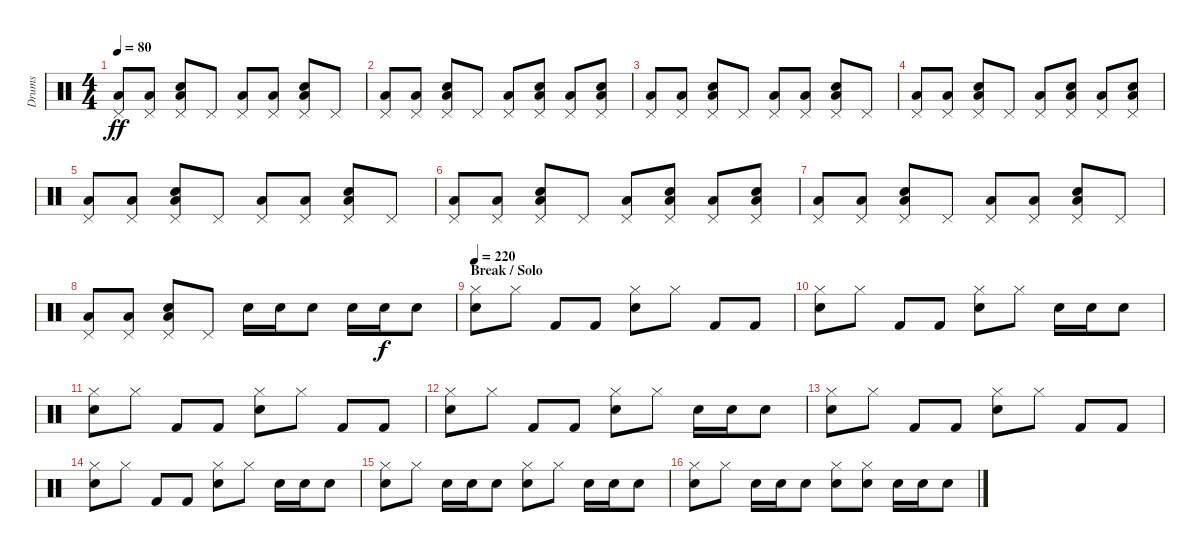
\track ("Drums" "Drums") {instrument percussion}
\staff {score}
\articulation defaults
\ts (4 4)
\tempo 80
\clef neutral
\ks c
("Low Floor Tom (hit)" "Pedal Hi-Hat (hit)").8{dy ff} ("Low Floor Tom (hit)" "Pedal Hi-Hat (hit)").8 ("Electric Snare (hit)" "Low Floor Tom (hit)" "Pedal Hi-Hat (hit)").8 "Pedal Hi-Hat (hit)".8 ("Low Floor Tom (hit)" "Pedal Hi-Hat (hit)").8 ("Low Floor Tom (hit)" "Pedal Hi-Hat (hit)").8 ("Electric Snare (hit)" "Low Floor Tom (hit)" "Pedal Hi-Hat (hit)").8 "Pedal Hi-Hat (hit)".8 |
("Low Floor Tom (hit)" "Pedal Hi-Hat (hit)").8 ("Low Floor Tom (hit)" "Pedal Hi-Hat (hit)").8 ("Electric Snare (hit)" "Low Floor Tom (hit)" "Pedal Hi-Hat (hit)").8 "Pedal Hi-Hat (hit)".8 ("Low Floor Tom (hit)" "Pedal Hi-Hat (hit)").8 ("Electric Snare (hit)" "Low Floor Tom (hit)" "Pedal Hi-Hat (hit)").8 ("Low Floor Tom (hit)" "Pedal Hi-Hat (hit)").8 ("Electric Snare (hit)" "Low Floor Tom (hit)" "Pedal Hi-Hat (hit)").8 |
("Low Floor Tom (hit)" "Pedal Hi-Hat (hit)").8 ("Low Floor Tom (hit)" "Pedal Hi-Hat (hit)").8 ("Electric Snare (hit)" "Low Floor Tom (hit)" "Pedal Hi-Hat (hit)").8 "Pedal Hi-Hat (hit)".8 ("Low Floor Tom (hit)" "Pedal Hi-Hat (hit)").8 ("Low Floor Tom (hit)" "Pedal Hi-Hat (hit)").8 ("Electric Snare (hit)" "Low Floor Tom (hit)" "Pedal Hi-Hat (hit)").8 "Pedal Hi-Hat (hit)".8 |
("Low Floor Tom (hit)" "Pedal Hi-Hat (hit)").8 ("Low Floor Tom (hit)" "Pedal Hi-Hat (hit)").8 ("Electric Snare (hit)" "Low Floor Tom (hit)" "Pedal Hi-Hat (hit)").8 "Pedal Hi-Hat (hit)".8 ("Low Floor Tom (hit)" "Pedal Hi-Hat (hit)").8 ("Electric Snare (hit)" "Low Floor Tom (hit)" "Pedal Hi-Hat (hit)").8 ("Low Floor Tom (hit)" "Pedal Hi-Hat (hit)").8 ("Electric Snare (hit)" "Low Floor Tom (hit)" "Pedal Hi-Hat (hit)").8 |
("Low Floor Tom (hit)" "Pedal Hi-Hat (hit)").8 ("Low Floor Tom (hit)" "Pedal Hi-Hat (hit)").8 ("Electric Snare (hit)" "Low Floor Tom (hit)" "Pedal Hi-Hat (hit)").8 "Pedal Hi-Hat (hit)".8 ("Low Floor Tom (hit)" "Pedal Hi-Hat (hit)").8 ("Low Floor Tom (hit)" "Pedal Hi-Hat (hit)").8 ("Electric Snare (hit)" "Low Floor Tom (hit)" "Pedal Hi-Hat (hit)").8 "Pedal Hi-Hat (hit)".8 |
("Low Floor Tom (hit)" "Pedal Hi-Hat (hit)").8 ("Low Floor Tom (hit)" "Pedal Hi-Hat (hit)").8 ("Electric Snare (hit)" "Low Floor Tom (hit)" "Pedal Hi-Hat (hit)").8 "Pedal Hi-Hat (hit)".8 ("Low Floor Tom (hit)" "Pedal Hi-Hat (hit)").8 ("Electric Snare (hit)" "Low Floor Tom (hit)" "Pedal Hi-Hat (hit)").8 ("Low Floor Tom (hit)" "Pedal Hi-Hat (hit)").8 ("Electric Snare (hit)" "Low Floor Tom (hit)" "Pedal Hi-Hat (hit)").8 |
("Low Floor Tom (hit)" "Pedal Hi-Hat (hit)").8 ("Low Floor Tom (hit)" "Pedal Hi-Hat (hit)").8 ("Electric Snare (hit)" "Low Floor Tom (hit)" "Pedal Hi-Hat (hit)").8 "Pedal Hi-Hat (hit)".8 ("Low Floor Tom (hit)" "Pedal Hi-Hat (hit)").8 ("Low Floor Tom (hit)" "Pedal Hi-Hat (hit)").8 ("Electric Snare (hit)" "Low Floor Tom (hit)" "Pedal Hi-Hat (hit)").8 "Pedal Hi-Hat (hit)".8 |
("Low Floor Tom (hit)" "Pedal Hi-Hat (hit)").8 ("Low Floor Tom (hit)" "Pedal Hi-Hat (hit)").8 ("Electric Snare (hit)" "Low Floor Tom (hit)" "Pedal Hi-Hat (hit)").8 "Pedal Hi-Hat (hit)".8 "Snare (hit) 2".16 "Snare (hit) 2".16 "Snare (hit) 2".8 "Snare (hit) 2".16 "Snare (hit) 2".16{dy f} "Snare (hit) 2".8 |
\section ("" "Break / Solo")
\tempo 220
("Hi-Hat (closed)" "Snare (hit) 2").8 "Hi-Hat (closed)".8 "Kick (hit) 2".8 "Kick (hit) 2".8 ("Hi-Hat (closed)" "Snare (hit) 2").8 "Hi-Hat (closed)".8 "Kick (hit) 2".8 "Kick (hit) 2".8 |
("Hi-Hat (closed)" "Snare (hit) 2").8 "Hi-Hat (closed)".8 "Kick (hit) 2".8 "Kick (hit) 2".8 ("Hi-Hat (closed)" "Snare (hit) 2").8 "Hi-Hat (closed)".8 "Snare (hit) 2".16 "Snare (hit) 2".16 "Snare (hit) 2".8 |
("Hi-Hat (closed)" "Snare (hit) 2").8 "Hi-Hat (closed)".8 "Kick (hit) 2".8 "Kick (hit) 2".8 ("Hi-Hat (closed)" "Snare (hit) 2").8 "Hi-Hat (closed)".8 "Kick (hit) 2".8 "Kick (hit) 2".8 |
("Hi-Hat (closed)" "Snare (hit) 2").8 "Hi-Hat (closed)".8 "Kick (hit) 2".8 "Kick (hit) 2".8 ("Hi-Hat (closed)" "Snare (hit) 2").8 "Hi-Hat (closed)".8 "Snare (hit) 2".16 "Snare (hit) 2".16 "Snare (hit) 2".8 |
("Hi-Hat (closed)" "Snare (hit) 2").8 "Hi-Hat (closed)".8 "Kick (hit) 2".8 "Kick (hit) 2".8 ("Hi-Hat (closed)" "Snare (hit) 2").8 "Hi-Hat (closed)".8 "Kick (hit) 2".8 "Kick (hit) 2".8 |
("Hi-Hat (closed)" "Snare (hit) 2").8 "Hi-Hat (closed)".8 "Kick (hit) 2".8 "Kick (hit) 2".8 ("Hi-Hat (closed)" "Snare (hit) 2").8 "Hi-Hat (closed)".8 "Snare (hit) 2".16 "Snare (hit) 2".16 "Snare (hit) 2".8 |
("Hi-Hat (closed)" "Snare (hit) 2").8 "Hi-Hat (closed)".8 "Snare (hit) 2".16 "Snare (hit) 2".16 "Snare (hit) 2".8 ("Hi-Hat (closed)" "Snare (hit) 2").8 "Hi-Hat (closed)".8 "Snare (hit) 2".16 "Snare (hit) 2".16 "Snare (hit) 2".8 |
("Hi-Hat (closed)" "Snare (hit) 2").8 "Hi-Hat (closed)".8 "Snare (hit) 2".16 "Snare (hit) 2".16 "Snare (hit) 2".8 ("Hi-Hat (closed)" "Snare (hit) 2").8 ("Hi-Hat (closed)" "Snare (hit) 2").8 "Snare (hit) 2".16 "Snare (hit) 2".16 "Snare (hit) 2".8
